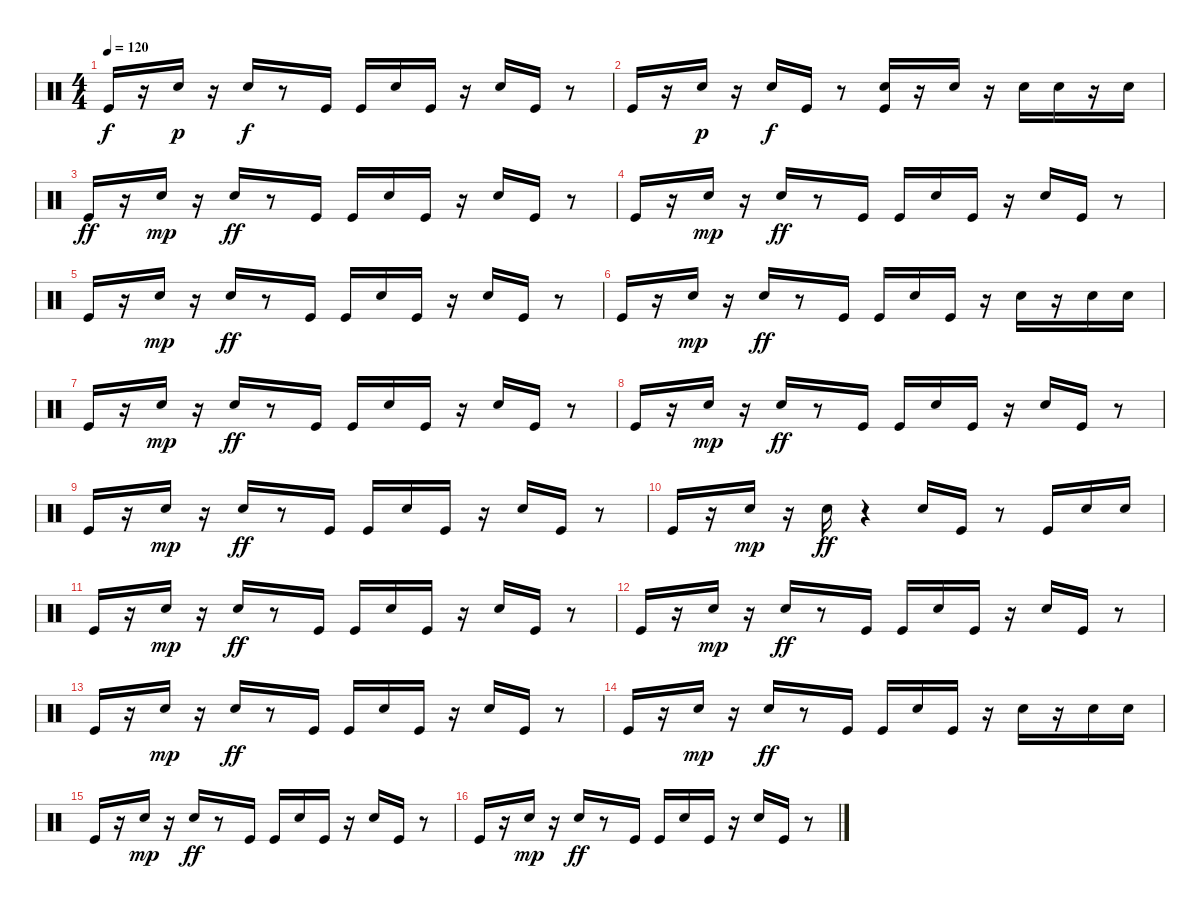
\track "" {instrument percussion}
\staff {score}
\articulation defaults
\ts (4 4)
\tempo 120
\clef neutral
\ks c "Kick (hit)".16{dy f}
r.16 "Electric Snare (hit)".16{dy p} r.16 "Electric Snare (hit)".16{dy f} r.8 "Kick (hit)".16 "Kick (hit)".16 "Electric Snare (hit)".16 "Kick (hit)".16 r.16 "Electric Snare (hit)".16 "Kick (hit)".16 r.8 |
"Kick (hit)".16 r.16 "Electric Snare (hit)".16{dy p} r.16 "Electric Snare (hit)".16{dy f} "Kick (hit)".16 r.8 ("Electric Snare (hit)" "Kick (hit)").16 r.16 "Electric Snare (hit)".16 r.16 "Electric Snare (hit)".16 "Electric Snare (hit)".16 r.16 "Electric Snare (hit)".16 |
"Kick (hit)".16{dy ff} r.16 "Electric Snare (hit)".16{dy mp} r.16 "Electric Snare (hit)".16{dy ff} r.8 "Kick (hit)".16 "Kick (hit)".16 "Electric Snare (hit)".16 "Kick (hit)".16 r.16 "Electric Snare (hit)".16 "Kick (hit)".16 r.8 |
"Kick (hit)".16 r.16 "Electric Snare (hit)".16{dy mp} r.16 "Electric Snare (hit)".16{dy ff} r.8 "Kick (hit)".16 "Kick (hit)".16 "Electric Snare (hit)".16 "Kick (hit)".16 r.16 "Electric Snare (hit)".16 "Kick (hit)".16 r.8 |
"Kick (hit)".16 r.16 "Electric Snare (hit)".16{dy mp} r.16 "Electric Snare (hit)".16{dy ff} r.8 "Kick (hit)".16 "Kick (hit)".16 "Electric Snare (hit)".16 "Kick (hit)".16 r.16 "Electric Snare (hit)".16 "Kick (hit)".16 r.8 |
"Kick (hit)".16 r.16 "Electric Snare (hit)".16{dy mp} r.16 "Electric Snare (hit)".16{dy ff} r.8 "Kick (hit)".16 "Kick (hit)".16 "Electric Snare (hit)".16 "Kick (hit)".16 r.16 "Electric Snare (hit)".16 r.16 "Electric Snare (hit)".16 "Electric Snare (hit)".16 |
"Kick (hit)".16 r.16 "Electric Snare (hit)".16{dy mp} r.16 "Electric Snare (hit)".16{dy ff} r.8 "Kick (hit)".16 "Kick (hit)".16 "Electric Snare (hit)".16 "Kick (hit)".16 r.16 "Electric Snare (hit)".16 "Kick (hit)".16 r.8 |
"Kick (hit)".16 r.16 "Electric Snare (hit)".16{dy mp} r.16 "Electric Snare (hit)".16{dy ff} r.8 "Kick (hit)".16 "Kick (hit)".16 "Electric Snare (hit)".16 "Kick (hit)".16 r.16 "Electric Snare (hit)".16 "Kick (hit)".16 r.8 |
"Kick (hit)".16 r.16 "Electric Snare (hit)".16{dy mp} r.16 "Electric Snare (hit)".16{dy ff} r.8 "Kick (hit)".16 "Kick (hit)".16 "Electric Snare (hit)".16 "Kick (hit)".16 r.16 "Electric Snare (hit)".16 "Kick (hit)".16 r.8 |
"Kick (hit)".16 r.16 "Electric Snare (hit)".16{dy mp} r.16 "Electric Snare (hit)".16{dy ff} r.4 "Electric Snare (hit)".16 "Kick (hit)".16 r.8 "Kick (hit)".16 "Electric Snare (hit)".16 "Electric Snare (hit)".16 |
"Kick (hit)".16 r.16 "Electric Snare (hit)".16{dy mp} r.16 "Electric Snare (hit)".16{dy ff} r.8 "Kick (hit)".16 "Kick (hit)".16 "Electric Snare (hit)".16 "Kick (hit)".16 r.16 "Electric Snare (hit)".16 "Kick (hit)".16 r.8 |
"Kick (hit)".16 r.16 "Electric Snare (hit)".16{dy mp} r.16 "Electric Snare (hit)".16{dy ff} r.8 "Kick (hit)".16 "Kick (hit)".16 "Electric Snare (hit)".16 "Kick (hit)".16 r.16 "Electric Snare (hit)".16 "Kick (hit)".16 r.8 |
"Kick (hit)".16 r.16 "Electric Snare (hit)".16{dy mp} r.16 "Electric Snare (hit)".16{dy ff} r.8 "Kick (hit)".16 "Kick (hit)".16 "Electric Snare (hit)".16 "Kick (hit)".16 r.16 "Electric Snare (hit)".16 "Kick (hit)".16 r.8 |
"Kick (hit)".16 r.16 "Electric Snare (hit)".16{dy mp} r.16 "Electric Snare (hit)".16{dy ff} r.8 "Kick (hit)".16 "Kick (hit)".16 "Electric Snare (hit)".16 "Kick (hit)".16 r.16 "Electric Snare (hit)".16 r.16 "Electric Snare (hit)".16 "Electric Snare (hit)".16 |
"Kick (hit)".16 r.16 "Electric Snare (hit)".16{dy mp} r.16 "Electric Snare (hit)".16{dy ff} r.8 "Kick (hit)".16 "Kick (hit)".16 "Electric Snare (hit)".16 "Kick (hit)".16 r.16 "Electric Snare (hit)".16 "Kick (hit)".16 r.8 |
"Kick (hit)".16 r.16 "Electric Snare (hit)".16{dy mp} r.16 "Electric Snare (hit)".16{dy ff} r.8 "Kick (hit)".16 "Kick (hit)".16 "Electric Snare (hit)".16 "Kick (hit)".16 r.16 "Electric Snare (hit)".16 "Kick (hit)".16 r.8
